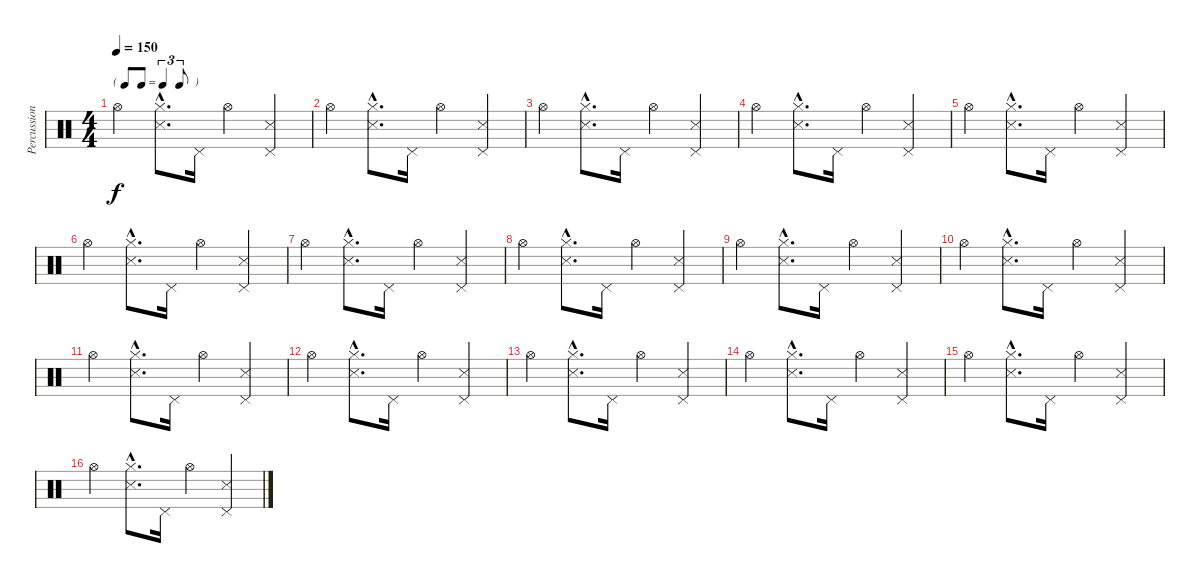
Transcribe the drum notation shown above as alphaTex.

\track ("Percussion" "Percussion") {instrument percussion}
\staff {score}
\articulation defaults
\ts (4 4)
\tf triplet8th
\tempo 150
\clef neutral
\ks c "Hi-Hat (open)".4{dy f}
("Snare (side stick) 3"{hac} "Hi-Hat (closed)"{hac}).8{d} "Pedal Hi-Hat (hit)".16 "Hi-Hat (open)".4 ("Pedal Hi-Hat (hit)" "Snare (side stick) 3").4 |
"Hi-Hat (open)".4 ("Snare (side stick) 3"{hac} "Hi-Hat (closed)"{hac}).8{d} "Pedal Hi-Hat (hit)".16 "Hi-Hat (open)".4 ("Pedal Hi-Hat (hit)" "Snare (side stick) 3").4 |
"Hi-Hat (open)".4 ("Snare (side stick) 3"{hac} "Hi-Hat (closed)"{hac}).8{d} "Pedal Hi-Hat (hit)".16 "Hi-Hat (open)".4 ("Pedal Hi-Hat (hit)" "Snare (side stick) 3").4 |
"Hi-Hat (open)".4 ("Snare (side stick) 3"{hac} "Hi-Hat (closed)"{hac}).8{d} "Pedal Hi-Hat (hit)".16 "Hi-Hat (open)".4 ("Pedal Hi-Hat (hit)" "Snare (side stick) 3").4 |
"Hi-Hat (open)".4 ("Snare (side stick) 3"{hac} "Hi-Hat (closed)"{hac}).8{d} "Pedal Hi-Hat (hit)".16 "Hi-Hat (open)".4 ("Pedal Hi-Hat (hit)" "Snare (side stick) 3").4 |
"Hi-Hat (open)".4 ("Snare (side stick) 3"{hac} "Hi-Hat (closed)"{hac}).8{d} "Pedal Hi-Hat (hit)".16 "Hi-Hat (open)".4 ("Pedal Hi-Hat (hit)" "Snare (side stick) 3").4 |
"Hi-Hat (open)".4 ("Snare (side stick) 3"{hac} "Hi-Hat (closed)"{hac}).8{d} "Pedal Hi-Hat (hit)".16 "Hi-Hat (open)".4 ("Pedal Hi-Hat (hit)" "Snare (side stick) 3").4 |
"Hi-Hat (open)".4 ("Snare (side stick) 3"{hac} "Hi-Hat (closed)"{hac}).8{d} "Pedal Hi-Hat (hit)".16 "Hi-Hat (open)".4 ("Pedal Hi-Hat (hit)" "Snare (side stick) 3").4 |
"Hi-Hat (open)".4 ("Snare (side stick) 3"{hac} "Hi-Hat (closed)"{hac}).8{d} "Pedal Hi-Hat (hit)".16 "Hi-Hat (open)".4 ("Pedal Hi-Hat (hit)" "Snare (side stick) 3").4 |
"Hi-Hat (open)".4 ("Snare (side stick) 3"{hac} "Hi-Hat (closed)"{hac}).8{d} "Pedal Hi-Hat (hit)".16 "Hi-Hat (open)".4 ("Pedal Hi-Hat (hit)" "Snare (side stick) 3").4 |
"Hi-Hat (open)".4 ("Snare (side stick) 3"{hac} "Hi-Hat (closed)"{hac}).8{d} "Pedal Hi-Hat (hit)".16 "Hi-Hat (open)".4 ("Pedal Hi-Hat (hit)" "Snare (side stick) 3").4 |
"Hi-Hat (open)".4 ("Snare (side stick) 3"{hac} "Hi-Hat (closed)"{hac}).8{d} "Pedal Hi-Hat (hit)".16 "Hi-Hat (open)".4 ("Pedal Hi-Hat (hit)" "Snare (side stick) 3").4 |
"Hi-Hat (open)".4 ("Snare (side stick) 3"{hac} "Hi-Hat (closed)"{hac}).8{d} "Pedal Hi-Hat (hit)".16 "Hi-Hat (open)".4 ("Pedal Hi-Hat (hit)" "Snare (side stick) 3").4 |
"Hi-Hat (open)".4 ("Snare (side stick) 3"{hac} "Hi-Hat (closed)"{hac}).8{d} "Pedal Hi-Hat (hit)".16 "Hi-Hat (open)".4 ("Pedal Hi-Hat (hit)" "Snare (side stick) 3").4 |
"Hi-Hat (open)".4 ("Snare (side stick) 3"{hac} "Hi-Hat (closed)"{hac}).8{d} "Pedal Hi-Hat (hit)".16 "Hi-Hat (open)".4 ("Pedal Hi-Hat (hit)" "Snare (side stick) 3").4 |
"Hi-Hat (open)".4 ("Snare (side stick) 3"{hac} "Hi-Hat (closed)"{hac}).8{d} "Pedal Hi-Hat (hit)".16 "Hi-Hat (open)".4 ("Pedal Hi-Hat (hit)" "Snare (side stick) 3").4
